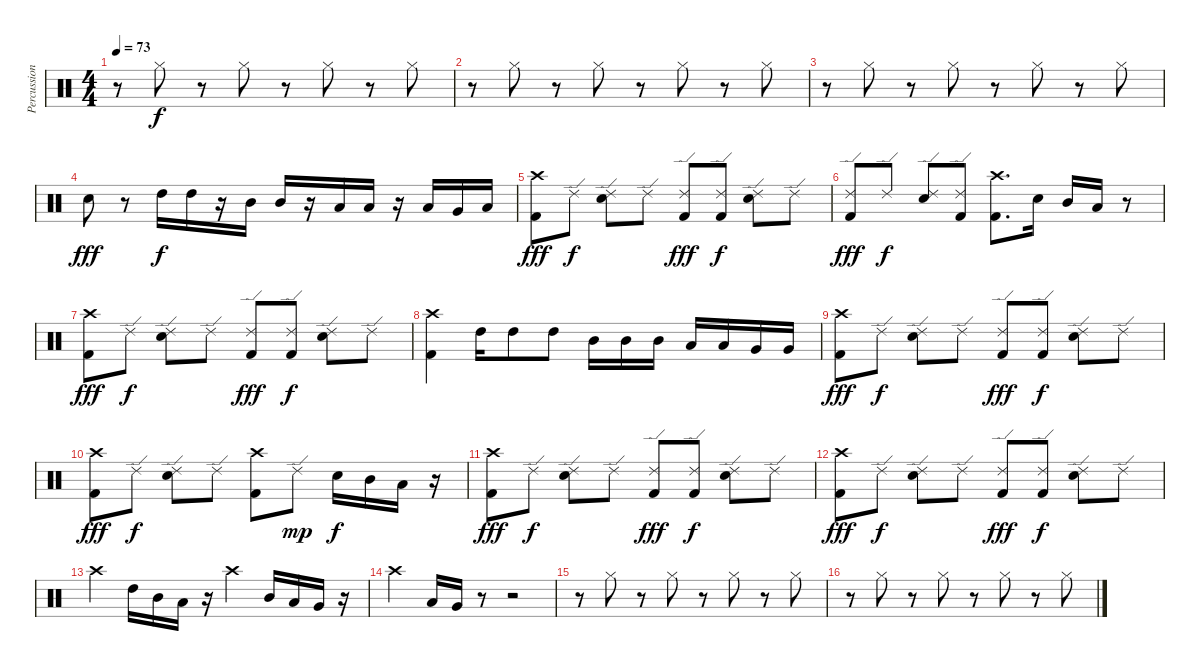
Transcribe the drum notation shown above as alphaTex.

\track ("Percussion" "Percussion") {instrument percussion}
\staff {score}
\articulation defaults
\ts (4 4)
\tempo 73
\clef neutral
\ks c
r.8{dy f} "Hi-Hat (closed)".8 r.8 "Hi-Hat (closed)".8 r.8 "Hi-Hat (closed)".8 r.8 "Hi-Hat (closed)".8 |
r.8 "Hi-Hat (closed)".8 r.8 "Hi-Hat (closed)".8 r.8 "Hi-Hat (closed)".8 r.8 "Hi-Hat (closed)".8 |
r.8 "Hi-Hat (closed)".8 r.8 "Hi-Hat (closed)".8 r.8 "Hi-Hat (closed)".8 r.8 "Hi-Hat (closed)".8 |
"Electric Snare (hit)".8{dy fff} r.8 "High Tom (hit)".16{dy f} "High Tom (hit)".16 r.16 "Mid Tom (hit)".16 "Mid Tom (hit)".16 r.16 "Low Tom (hit)".16 "Low Tom (hit)".16 r.16 "Low Tom (hit)".16 "Very Low Tom (hit)".16 "Low Floor Tom (hit)".16 |
("Crash high (hit)" "Kick (hit) 2").8{dy fff} "Ride (edge) 2".8{dy f} ("Ride (edge) 2" "Electric Snare (hit)").8 "Ride (edge) 2".8 ("Ride (edge) 2" "Kick (hit) 2").8{dy fff} ("Ride (edge) 2" "Kick (hit) 2").8{dy f} ("Ride (edge) 2" "Electric Snare (hit)").8 "Ride (edge) 2".8 |
("Ride (edge) 2" "Kick (hit) 2").8{dy fff} "Ride (edge) 2".8{dy f} ("Ride (edge) 2" "Electric Snare (hit)").8 ("Ride (edge) 2" "Kick (hit) 2").8 ("Crash high (hit)" "Kick (hit) 2").8{d} "Electric Snare (hit)".16 "Mid Tom (hit)".16 "Low Tom (hit)".16 r.8 |
("Crash high (hit)" "Kick (hit) 2").8{dy fff} "Ride (edge) 2".8{dy f} ("Ride (edge) 2" "Electric Snare (hit)").8 "Ride (edge) 2".8 ("Ride (edge) 2" "Kick (hit) 2").8{dy fff} ("Ride (edge) 2" "Kick (hit) 2").8{dy f} ("Ride (edge) 2" "Electric Snare (hit)").8 "Ride (edge) 2".8 |
("Crash high (hit)" "Kick (hit) 2").4 "High Tom (hit)".16 "High Tom (hit)".8 "High Tom (hit)".8 "Mid Tom (hit)".16 "Mid Tom (hit)".16 "Mid Tom (hit)".16 "Low Tom (hit)".16 "Low Tom (hit)".16 "Very Low Tom (hit)".16 "Very Low Tom (hit)".16 |
("Crash high (hit)" "Kick (hit) 2").8{dy fff} "Ride (edge) 2".8{dy f} ("Ride (edge) 2" "Electric Snare (hit)").8 "Ride (edge) 2".8 ("Ride (edge) 2" "Kick (hit) 2").8{dy fff} ("Ride (edge) 2" "Kick (hit) 2").8{dy f} ("Ride (edge) 2" "Electric Snare (hit)").8 "Ride (edge) 2".8 |
("Crash high (hit)" "Kick (hit) 2").8{dy fff} "Ride (edge) 2".8{dy f} ("Ride (edge) 2" "Electric Snare (hit)").8 "Ride (edge) 2".8 ("Crash high (hit)" "Kick (hit) 2").8 "Ride (edge) 2".8{dy mp} "Electric Snare (hit)".16{dy f} "Mid Tom (hit)".16 "Low Tom (hit)".16 r.16 |
("Crash high (hit)" "Kick (hit) 2").8{dy fff} "Ride (edge) 2".8{dy f} ("Ride (edge) 2" "Electric Snare (hit)").8 "Ride (edge) 2".8 ("Ride (edge) 2" "Kick (hit) 2").8{dy fff} ("Ride (edge) 2" "Kick (hit) 2").8{dy f} ("Ride (edge) 2" "Electric Snare (hit)").8 "Ride (edge) 2".8 |
("Crash high (hit)" "Kick (hit) 2").8{dy fff} "Ride (edge) 2".8{dy f} ("Ride (edge) 2" "Electric Snare (hit)").8 "Ride (edge) 2".8 ("Ride (edge) 2" "Kick (hit) 2").8{dy fff} ("Ride (edge) 2" "Kick (hit) 2").8{dy f} ("Ride (edge) 2" "Electric Snare (hit)").8 "Ride (edge) 2".8 |
"Crash high (hit)".4 "High Tom (hit)".16 "Mid Tom (hit)".16 "Low Tom (hit)".16 r.16 "Crash high (hit)".4 "Mid Tom (hit)".16 "Low Tom (hit)".16 "Very Low Tom (hit)".16 r.16 |
"Crash high (hit)".4 "Low Tom (hit)".16 "Very Low Tom (hit)".16 r.8 r.2 |
r.8 "Hi-Hat (closed)".8 r.8 "Hi-Hat (closed)".8 r.8 "Hi-Hat (closed)".8 r.8 "Hi-Hat (closed)".8 |
r.8 "Hi-Hat (closed)".8 r.8 "Hi-Hat (closed)".8 r.8 "Hi-Hat (closed)".8 r.8 "Hi-Hat (closed)".8
